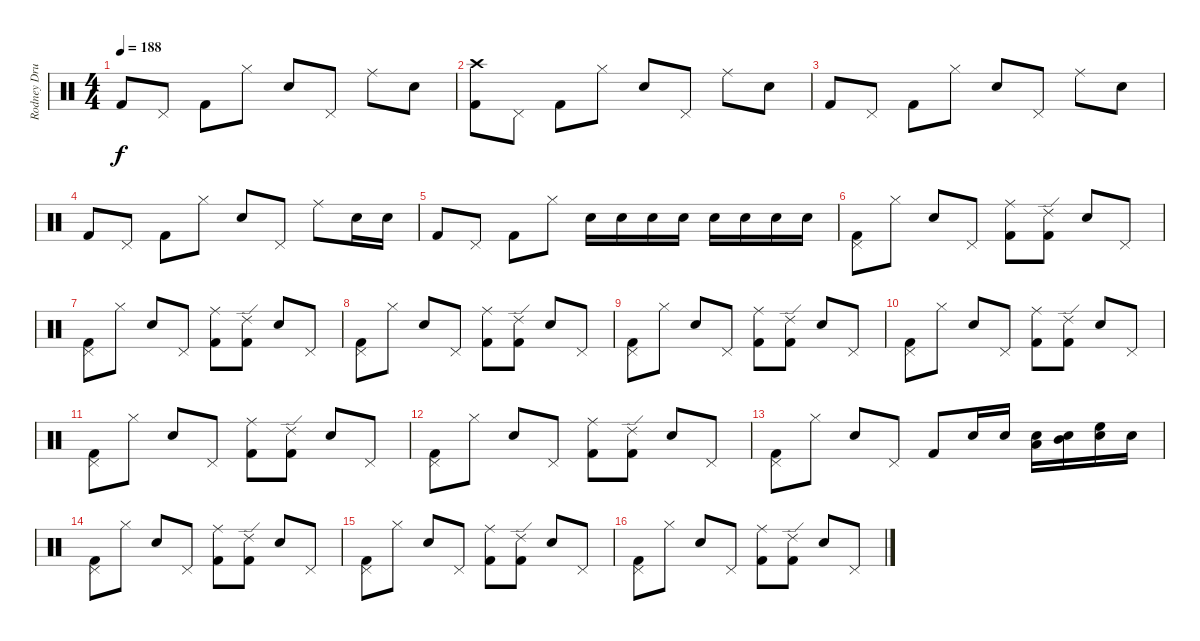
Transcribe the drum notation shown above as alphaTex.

\track ("Rodney Drums" "Rodney Dru") {instrument percussion}
\staff {score}
\articulation defaults
\ts (4 4)
\tempo 188
\clef neutral
\ks c "Kick (hit) 2".8{dy f} "Pedal Hi-Hat (hit)".8 "Kick (hit) 2".8 "Hi-Hat (closed)".8 "Electric Snare (hit)".8 "Pedal Hi-Hat (hit)".8 "Ride (middle)".8 "Electric Snare (hit)".8
|
("Crash high (hit)" "Kick (hit) 2").8 "Pedal Hi-Hat (hit)".8 "Kick (hit) 2".8 "Hi-Hat (closed)".8 "Electric Snare (hit)".8 "Pedal Hi-Hat (hit)".8 "Ride (middle)".8 "Electric Snare (hit)".8 |
"Kick (hit) 2".8 "Pedal Hi-Hat (hit)".8 "Kick (hit) 2".8 "Hi-Hat (closed)".8 "Electric Snare (hit)".8 "Pedal Hi-Hat (hit)".8 "Ride (middle)".8 "Electric Snare (hit)".8 |
"Kick (hit) 2".8 "Pedal Hi-Hat (hit)".8 "Kick (hit) 2".8 "Hi-Hat (closed)".8 "Electric Snare (hit)".8 "Pedal Hi-Hat (hit)".8 "Ride (middle)".8 "Electric Snare (hit)".16 "Electric Snare (hit)".16 |
"Kick (hit) 2".8 "Pedal Hi-Hat (hit)".8 "Kick (hit) 2".8 "Hi-Hat (closed)".8 "Electric Snare (hit)".16 "Electric Snare (hit)".16 "Electric Snare (hit)".16 "Electric Snare (hit)".16 "Electric Snare (hit)".16 "Electric Snare (hit)".16 "Electric Snare (hit)".16 "Electric Snare (hit)".16 |
("Pedal Hi-Hat (hit)" "Kick (hit) 2").8 "Hi-Hat (closed)".8 "Electric Snare (hit)".8 "Pedal Hi-Hat (hit)".8 ("Ride (middle)" "Kick (hit) 2").8 ("Ride (edge) 2" "Kick (hit) 2").8 "Electric Snare (hit)".8 "Pedal Hi-Hat (hit)".8 |
("Pedal Hi-Hat (hit)" "Kick (hit) 2").8 "Hi-Hat (closed)".8 "Electric Snare (hit)".8 "Pedal Hi-Hat (hit)".8 ("Ride (middle)" "Kick (hit) 2").8 ("Ride (edge) 2" "Kick (hit) 2").8 "Electric Snare (hit)".8 "Pedal Hi-Hat (hit)".8 |
("Pedal Hi-Hat (hit)" "Kick (hit) 2").8 "Hi-Hat (closed)".8 "Electric Snare (hit)".8 "Pedal Hi-Hat (hit)".8 ("Ride (middle)" "Kick (hit) 2").8 ("Ride (edge) 2" "Kick (hit) 2").8 "Electric Snare (hit)".8 "Pedal Hi-Hat (hit)".8 |
("Pedal Hi-Hat (hit)" "Kick (hit) 2").8 "Hi-Hat (closed)".8 "Electric Snare (hit)".8 "Pedal Hi-Hat (hit)".8 ("Ride (middle)" "Kick (hit) 2").8 ("Ride (edge) 2" "Kick (hit) 2").8 "Electric Snare (hit)".8 "Pedal Hi-Hat (hit)".8 |
("Pedal Hi-Hat (hit)" "Kick (hit) 2").8 "Hi-Hat (closed)".8 "Electric Snare (hit)".8 "Pedal Hi-Hat (hit)".8 ("Ride (middle)" "Kick (hit) 2").8 ("Ride (edge) 2" "Kick (hit) 2").8 "Electric Snare (hit)".8 "Pedal Hi-Hat (hit)".8 |
("Pedal Hi-Hat (hit)" "Kick (hit) 2").8 "Hi-Hat (closed)".8 "Electric Snare (hit)".8 "Pedal Hi-Hat (hit)".8 ("Ride (middle)" "Kick (hit) 2").8 ("Ride (edge) 2" "Kick (hit) 2").8 "Electric Snare (hit)".8 "Pedal Hi-Hat (hit)".8 |
("Pedal Hi-Hat (hit)" "Kick (hit) 2").8 "Hi-Hat (closed)".8 "Electric Snare (hit)".8 "Pedal Hi-Hat (hit)".8 ("Ride (middle)" "Kick (hit) 2").8 ("Ride (edge) 2" "Kick (hit) 2").8 "Electric Snare (hit)".8 "Pedal Hi-Hat (hit)".8 |
("Pedal Hi-Hat (hit)" "Kick (hit) 2").8 "Hi-Hat (closed)".8 "Electric Snare (hit)".8 "Pedal Hi-Hat (hit)".8 "Kick (hit) 2".8 "Electric Snare (hit)".16 "Electric Snare (hit)".16 ("Electric Snare (hit)" "Low Tom (hit)").16 ("Mid Tom (hit)" "Electric Snare (hit)").16 ("High Floor Tom (hit)" "Electric Snare (hit)").16 "Electric Snare (hit)".16 |
("Pedal Hi-Hat (hit)" "Kick (hit) 2").8 "Hi-Hat (closed)".8 "Electric Snare (hit)".8 "Pedal Hi-Hat (hit)".8 ("Ride (middle)" "Kick (hit) 2").8 ("Ride (edge) 2" "Kick (hit) 2").8 "Electric Snare (hit)".8 "Pedal Hi-Hat (hit)".8 |
("Pedal Hi-Hat (hit)" "Kick (hit) 2").8 "Hi-Hat (closed)".8 "Electric Snare (hit)".8 "Pedal Hi-Hat (hit)".8 ("Ride (middle)" "Kick (hit) 2").8 ("Ride (edge) 2" "Kick (hit) 2").8 "Electric Snare (hit)".8 "Pedal Hi-Hat (hit)".8 |
("Pedal Hi-Hat (hit)" "Kick (hit) 2").8 "Hi-Hat (closed)".8 "Electric Snare (hit)".8 "Pedal Hi-Hat (hit)".8 ("Ride (middle)" "Kick (hit) 2").8 ("Ride (edge) 2" "Kick (hit) 2").8 "Electric Snare (hit)".8 "Pedal Hi-Hat (hit)".8
